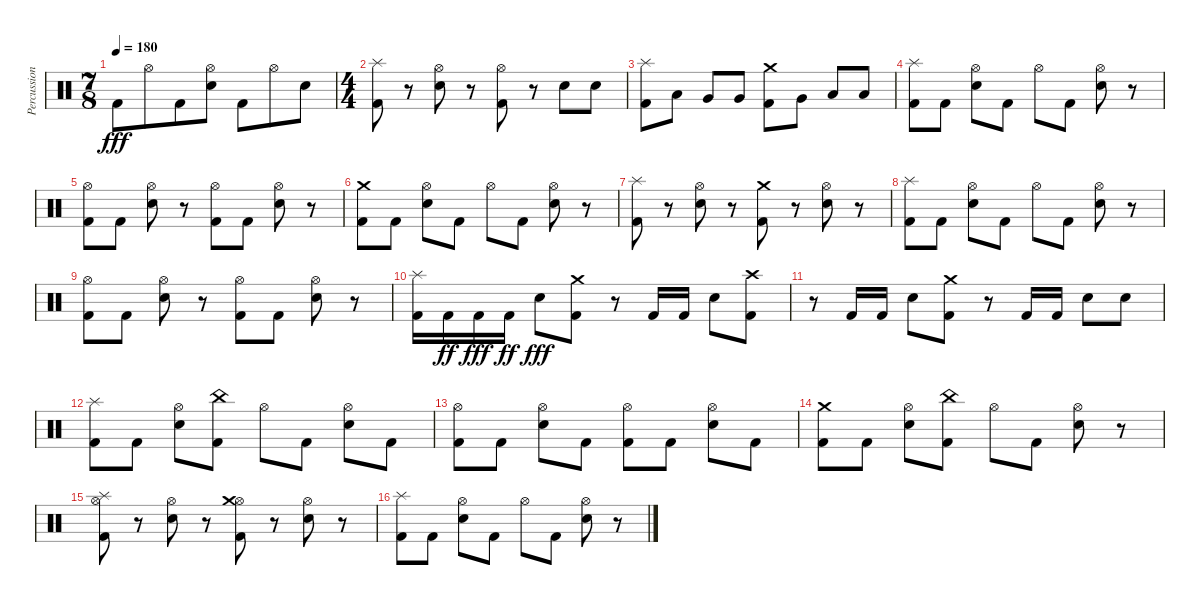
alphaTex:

\track ("Percussion" "Percussion") {instrument percussion}
\staff {score}
\articulation defaults
\ts (7 8)
\tempo 180
\clef neutral
\ks c "Kick (hit) 2".8{dy fff} "Hi-Hat (open)".8 "Kick (hit) 2".8
("Hi-Hat (open)" "Snare (hit) 2").8 "Kick (hit) 2".8 "Hi-Hat (open)".8 "Snare (hit) 2".8 |
\ts (4 4)
("Kick (hit) 2" "Splash (hit)").8 r.8 ("Hi-Hat (open)" "Snare (hit) 2").8 r.8 ("Hi-Hat (open)" "Kick (hit) 2").8 r.8 "Snare (hit) 2".8 "Snare (hit) 2".8 |
("Kick (hit) 2" "Splash (hit)").8 "Low Floor Tom (hit)".8 "Very Low Tom (hit)".8 "Very Low Tom (hit)".8 ("Kick (hit) 2" "Crash medium (hit)").8 "Very Low Tom (hit)".8 "Low Tom (hit)".8 "Low Tom (hit)".8 |
("Kick (hit) 2" "Splash (hit)").8 "Kick (hit) 2".8 ("Hi-Hat (open)" "Snare (hit) 2").8 "Kick (hit) 2".8 "Hi-Hat (open)".8 "Kick (hit) 2".8 ("Hi-Hat (open)" "Snare (hit) 2").8 r.8 |
("Hi-Hat (open)" "Kick (hit) 2").8 "Kick (hit) 2".8 ("Hi-Hat (open)" "Snare (hit) 2").8 r.8 ("Hi-Hat (open)" "Kick (hit) 2").8 "Kick (hit) 2".8 ("Hi-Hat (open)" "Snare (hit) 2").8 r.8 |
("Kick (hit) 2" "Crash medium (hit)").8 "Kick (hit) 2".8 ("Hi-Hat (open)" "Snare (hit) 2").8 "Kick (hit) 2".8 "Hi-Hat (open)".8 "Kick (hit) 2".8 ("Hi-Hat (open)" "Snare (hit) 2").8 r.8 |
("Kick (hit) 2" "Splash (hit)").8 r.8 ("Hi-Hat (open)" "Snare (hit) 2").8 r.8 ("Kick (hit) 2" "Crash medium (hit)").8 r.8 ("Hi-Hat (open)" "Snare (hit) 2").8 r.8 |
("Kick (hit) 2" "Splash (hit)").8 "Kick (hit) 2".8 ("Hi-Hat (open)" "Snare (hit) 2").8 "Kick (hit) 2".8 "Hi-Hat (open)".8 "Kick (hit) 2".8 ("Hi-Hat (open)" "Snare (hit) 2").8 r.8 |
("Hi-Hat (open)" "Kick (hit) 2").8 "Kick (hit) 2".8 ("Hi-Hat (open)" "Snare (hit) 2").8 r.8 ("Hi-Hat (open)" "Kick (hit) 2").8 "Kick (hit) 2".8 ("Hi-Hat (open)" "Snare (hit) 2").8 r.8 |
("Kick (hit) 2" "Splash (hit)").16 "Kick (hit) 2".16{dy ff} "Kick (hit) 2".16{dy fff} "Kick (hit) 2".16{dy ff} "Snare (hit) 2".8{dy fff} ("Kick (hit) 2" "Crash medium (hit)").8 r.8 "Kick (hit) 2".16 "Kick (hit) 2".16 "Snare (hit) 2".8 ("Kick (hit) 2" "Crash high (hit)").8 |
r.8 "Kick (hit) 2".16 "Kick (hit) 2".16 "Snare (hit) 2".8 ("Kick (hit) 2" "Crash medium (hit)").8 r.8 "Kick (hit) 2".16 "Kick (hit) 2".16 "Snare (hit) 2".8 "Snare (hit) 2".8 |
("Kick (hit) 2" "Splash (hit)").8 "Kick (hit) 2".8 ("Hi-Hat (open)" "Snare (hit) 2").8 ("Kick (hit) 2" "China (hit)").8 "Hi-Hat (open)".8 "Kick (hit) 2".8 ("Hi-Hat (open)" "Snare (hit) 2").8 "Kick (hit) 2".8 |
("Hi-Hat (open)" "Kick (hit) 2").8 "Kick (hit) 2".8 ("Hi-Hat (open)" "Snare (hit) 2").8 "Kick (hit) 2".8 ("Hi-Hat (open)" "Kick (hit) 2").8 "Kick (hit) 2".8 ("Hi-Hat (open)" "Snare (hit) 2").8 "Kick (hit) 2".8 |
("Kick (hit) 2" "Crash medium (hit)").8 "Kick (hit) 2".8 ("Hi-Hat (open)" "Snare (hit) 2").8 ("Kick (hit) 2" "China (hit)").8 "Hi-Hat (open)".8 "Kick (hit) 2".8 ("Hi-Hat (open)" "Snare (hit) 2").8 r.8 |
("Hi-Hat (open)" "Kick (hit) 2" "Splash (hit)").8 r.8 ("Hi-Hat (open)" "Snare (hit) 2").8 r.8 ("Hi-Hat (open)" "Kick (hit) 2" "Crash medium (hit)").8 r.8 ("Hi-Hat (open)" "Snare (hit) 2").8 r.8 |
("Kick (hit) 2" "Splash (hit)").8 "Kick (hit) 2".8 ("Hi-Hat (open)" "Snare (hit) 2").8 "Kick (hit) 2".8 "Hi-Hat (open)".8 "Kick (hit) 2".8 ("Hi-Hat (open)" "Snare (hit) 2").8 r.8
